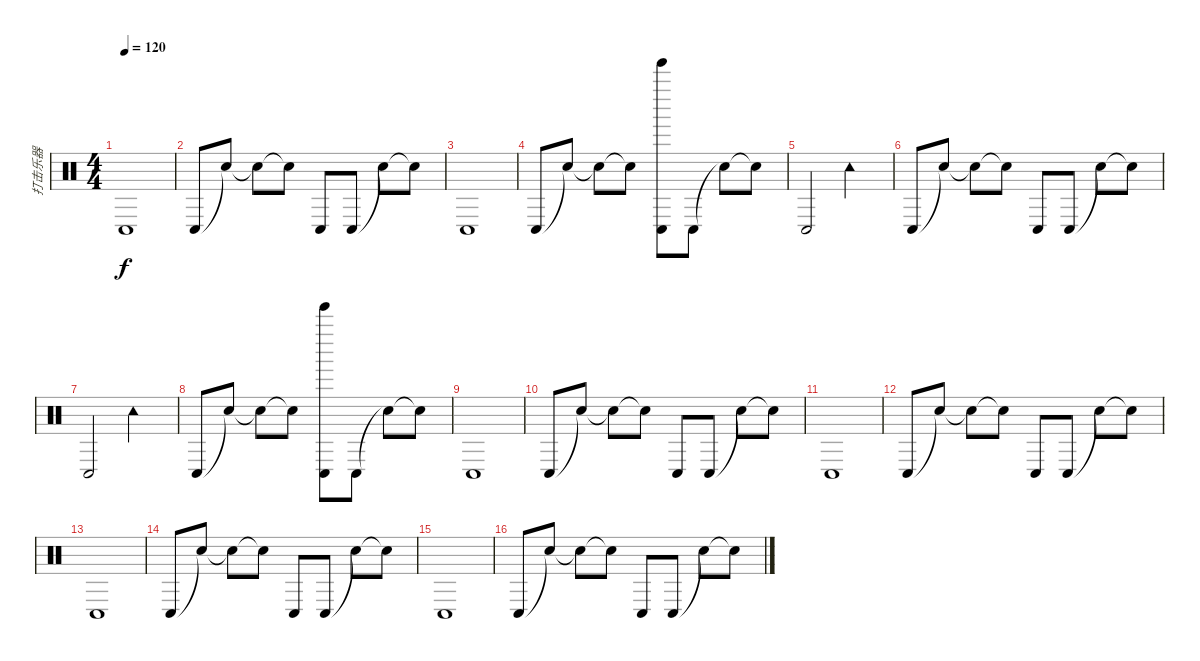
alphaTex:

\track ("打击乐器" "打击乐器") {instrument percussion}
\staff {score}
\articulation defaults
\ts (4 4)
\tempo 120
\clef neutral
\ks c "Conga low (hit)".1{dy f}
|
"Conga low (hit)".8 "Snare (hit)"{t}.8 "Snare (hit)"{t}.8 "Snare (hit)"{t}.8 "Conga low (hit)".8 "Conga low (hit)".8 "Snare (hit)"{t}.8 "Snare (hit)"{t}.8 |
"Conga low (hit)".1 |
"Conga low (hit)".8 "Snare (hit)"{t}.8 "Snare (hit)"{t}.8 "Snare (hit)"{t}.8 ("Tinkle Bell (hit)" "Conga low (hit)").8 "Conga low (hit)".8 "Snare (hit)"{t}.8 "Snare (hit)"{t}.8 |
"Conga low (hit)".2 "Tambourine (hit)".2 |
"Conga low (hit)".8 "Snare (hit)"{t}.8 "Snare (hit)"{t}.8 "Snare (hit)"{t}.8 "Conga low (hit)".8 "Conga low (hit)".8 "Snare (hit)"{t}.8 "Snare (hit)"{t}.8 |
"Conga low (hit)".2 "Tambourine (hit)".2 |
"Conga low (hit)".8 "Snare (hit)"{t}.8 "Snare (hit)"{t}.8 "Snare (hit)"{t}.8 ("Tinkle Bell (hit)" "Conga low (hit)").8 "Conga low (hit)".8 "Snare (hit)"{t}.8 "Snare (hit)"{t}.8 |
"Conga low (hit)".1 |
"Conga low (hit)".8 "Snare (hit)"{t}.8 "Snare (hit)"{t}.8 "Snare (hit)"{t}.8 "Conga low (hit)".8 "Conga low (hit)".8 "Snare (hit)"{t}.8 "Snare (hit)"{t}.8 |
"Conga low (hit)".1 |
"Conga low (hit)".8 "Snare (hit)"{t}.8 "Snare (hit)"{t}.8 "Snare (hit)"{t}.8 "Conga low (hit)".8 "Conga low (hit)".8 "Snare (hit)"{t}.8 "Snare (hit)"{t}.8 |
"Conga low (hit)".1 |
"Conga low (hit)".8 "Snare (hit)"{t}.8 "Snare (hit)"{t}.8 "Snare (hit)"{t}.8 "Conga low (hit)".8 "Conga low (hit)".8 "Snare (hit)"{t}.8 "Snare (hit)"{t}.8 |
"Conga low (hit)".1 |
"Conga low (hit)".8 "Snare (hit)"{t}.8 "Snare (hit)"{t}.8 "Snare (hit)"{t}.8 "Conga low (hit)".8 "Conga low (hit)".8 "Snare (hit)"{t}.8 "Snare (hit)"{t}.8
